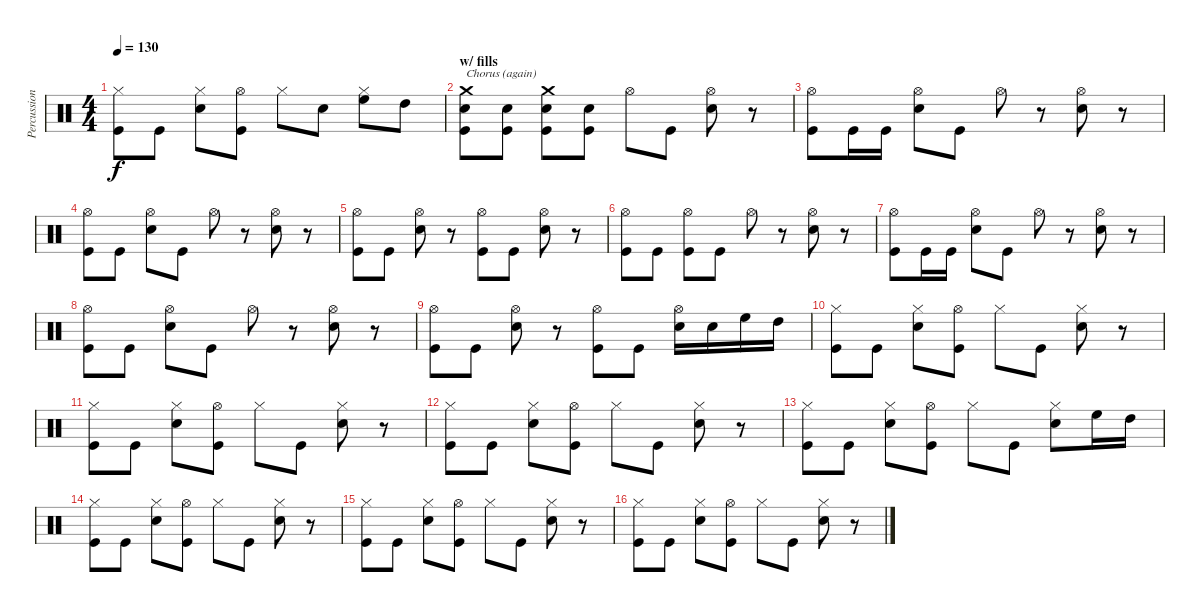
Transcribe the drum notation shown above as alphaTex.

\track ("Percussion" "Percussion") {instrument percussion}
\staff {score}
\articulation defaults
\ts (4 4)
\tempo 130
\clef neutral
\ks c
("Hi-Hat (closed)" "Kick (hit)").8{dy f} "Kick (hit)".8 ("Hi-Hat (closed)" "Snare (hit) 2").8 ("Hi-Hat (open)" "Kick (hit)").8 "Hi-Hat (closed)".8 "Snare (hit) 2".8 ("Hi-Hat (closed)" "High Floor Tom (hit)").8 "High Tom (hit)".8 |
\section ("" "w/ fills")
("Crash medium (hit)" "Snare (hit) 2" "Kick (hit)").8{txt "Chorus (again)"} ("Snare (hit) 2" "Kick (hit)").8 ("Crash medium (hit)" "Snare (hit) 2" "Kick (hit)").8 ("Snare (hit) 2" "Kick (hit)").8 "Hi-Hat (open)".8 "Kick (hit)".8 ("Hi-Hat (open)" "Snare (hit) 2").8 r.8 |
("Hi-Hat (open)" "Kick (hit)").8 "Kick (hit)".16 "Kick (hit)".16 ("Hi-Hat (open)" "Snare (hit) 2").8 "Kick (hit)".8 "Hi-Hat (open)".8 r.8 ("Hi-Hat (open)" "Snare (hit) 2").8 r.8 |
("Hi-Hat (open)" "Kick (hit)").8 "Kick (hit)".8 ("Hi-Hat (open)" "Snare (hit) 2").8 "Kick (hit)".8 "Hi-Hat (open)".8 r.8 ("Hi-Hat (open)" "Snare (hit) 2").8 r.8 |
("Hi-Hat (open)" "Kick (hit)").8 "Kick (hit)".8 ("Hi-Hat (open)" "Snare (hit) 2").8 r.8 ("Hi-Hat (open)" "Kick (hit)").8 "Kick (hit)".8 ("Hi-Hat (open)" "Snare (hit) 2").8 r.8 |
("Hi-Hat (open)" "Kick (hit)").8 "Kick (hit)".8 ("Hi-Hat (open)" "Kick (hit)").8 "Kick (hit)".8 "Hi-Hat (open)".8 r.8 ("Hi-Hat (open)" "Snare (hit) 2").8 r.8 |
("Hi-Hat (open)" "Kick (hit)").8 "Kick (hit)".16 "Kick (hit)".16 ("Hi-Hat (open)" "Snare (hit) 2").8 "Kick (hit)".8 "Hi-Hat (open)".8 r.8 ("Hi-Hat (open)" "Snare (hit) 2").8 r.8 |
("Hi-Hat (open)" "Kick (hit)").8 "Kick (hit)".8 ("Hi-Hat (open)" "Snare (hit) 2").8 "Kick (hit)".8 "Hi-Hat (open)".8 r.8 ("Hi-Hat (open)" "Snare (hit) 2").8 r.8 |
("Hi-Hat (open)" "Kick (hit)").8 "Kick (hit)".8 ("Hi-Hat (open)" "Snare (hit) 2").8 r.8 ("Hi-Hat (open)" "Kick (hit)").8 "Kick (hit)".8 ("Hi-Hat (open)" "Snare (hit) 2").16 "Snare (hit) 2".16 "High Floor Tom (hit)".16 "High Tom (hit)".16 |
("Hi-Hat (closed)" "Kick (hit)").8 "Kick (hit)".8 ("Hi-Hat (closed)" "Snare (hit) 2").8 ("Hi-Hat (open)" "Kick (hit)").8 "Hi-Hat (closed)".8 "Kick (hit)".8 ("Hi-Hat (closed)" "Snare (hit) 2").8 r.8 |
("Hi-Hat (closed)" "Kick (hit)").8 "Kick (hit)".8 ("Hi-Hat (closed)" "Snare (hit) 2").8 ("Hi-Hat (open)" "Kick (hit)").8 "Hi-Hat (closed)".8 "Kick (hit)".8 ("Hi-Hat (closed)" "Snare (hit) 2").8 r.8 |
("Hi-Hat (closed)" "Kick (hit)").8 "Kick (hit)".8 ("Hi-Hat (closed)" "Snare (hit) 2").8 ("Hi-Hat (open)" "Kick (hit)").8 "Hi-Hat (closed)".8 "Kick (hit)".8 ("Hi-Hat (closed)" "Snare (hit) 2").8 r.8 |
("Hi-Hat (closed)" "Kick (hit)").8 "Kick (hit)".8 ("Hi-Hat (closed)" "Snare (hit) 2").8 ("Hi-Hat (open)" "Kick (hit)").8 "Hi-Hat (closed)".8 "Kick (hit)".8 ("Hi-Hat (closed)" "Snare (hit) 2").8 "High Floor Tom (hit)".16 "High Tom (hit)".16 |
("Hi-Hat (closed)" "Kick (hit)").8 "Kick (hit)".8 ("Hi-Hat (closed)" "Snare (hit) 2").8 ("Hi-Hat (open)" "Kick (hit)").8 "Hi-Hat (closed)".8 "Kick (hit)".8 ("Hi-Hat (closed)" "Snare (hit) 2").8 r.8 |
("Hi-Hat (closed)" "Kick (hit)").8 "Kick (hit)".8 ("Hi-Hat (closed)" "Snare (hit) 2").8 ("Hi-Hat (open)" "Kick (hit)").8 "Hi-Hat (closed)".8 "Kick (hit)".8 ("Hi-Hat (closed)" "Snare (hit) 2").8 r.8 |
("Hi-Hat (closed)" "Kick (hit)").8 "Kick (hit)".8 ("Hi-Hat (closed)" "Snare (hit) 2").8 ("Hi-Hat (open)" "Kick (hit)").8 "Hi-Hat (closed)".8 "Kick (hit)".8 ("Hi-Hat (closed)" "Snare (hit) 2").8 r.8
